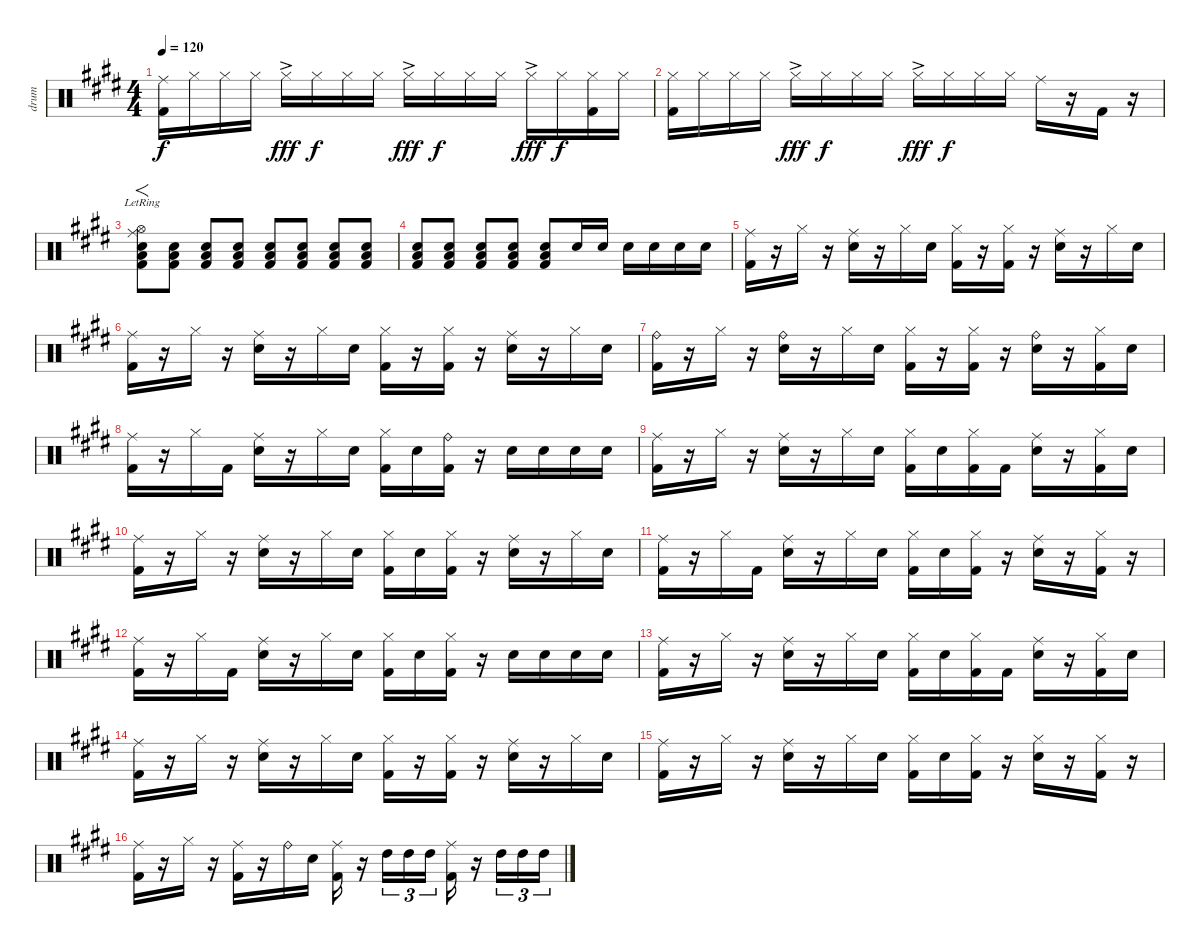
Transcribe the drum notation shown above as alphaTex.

\track ("drum" "drum") {instrument percussion}
\staff {score}
\articulation defaults
\ts (4 4)
\tempo 120
\clef neutral
\ks e
("Kick (hit) 2" "Ride (middle)").16{dy f} "Hi-Hat (closed)".16 "Hi-Hat (closed)".16 "Hi-Hat (closed)".16 "Hi-Hat (closed)"{ac}.16{dy fff} "Hi-Hat (closed)".16{dy f} "Hi-Hat (closed)".16 "Hi-Hat (closed)".16 "Hi-Hat (closed)"{ac}.16{dy fff} "Hi-Hat (closed)".16{dy f} "Hi-Hat (closed)".16 "Hi-Hat (closed)".16 "Hi-Hat (closed)"{ac}.16{dy fff} "Hi-Hat (closed)".16{dy f} ("Kick (hit) 2" "Hi-Hat (closed)").16 "Hi-Hat (closed)".16 |
("Kick (hit) 2" "Hi-Hat (closed)").16 "Hi-Hat (closed)".16 "Hi-Hat (closed)".16 "Hi-Hat (closed)".16 "Hi-Hat (closed)"{ac}.16{dy fff} "Hi-Hat (closed)".16{dy f} "Hi-Hat (closed)".16 "Hi-Hat (closed)".16 "Hi-Hat (closed)"{ac}.16{dy fff} "Hi-Hat (closed)".16{dy f} "Hi-Hat (closed)".16 "Hi-Hat (closed)".16 "Ride (middle)".16 r.16 "Kick (hit) 2".16 r.16 |
("Ride (middle)" "Snare (hit) 2" "Low Floor Tom (hit)" "Kick (hit) 2" "Hi-Hat (open)"{lr}).8{f} ("Snare (hit) 2" "Low Floor Tom (hit)" "Kick (hit) 2").8 ("Snare (hit) 2" "Low Floor Tom (hit)" "Kick (hit) 2").8 ("Snare (hit) 2" "Low Floor Tom (hit)" "Kick (hit) 2").8 ("Snare (hit) 2" "Low Floor Tom (hit)" "Kick (hit) 2").8 ("Snare (hit) 2" "Low Floor Tom (hit)" "Kick (hit) 2").8 ("Snare (hit) 2" "Low Floor Tom (hit)" "Kick (hit) 2").8 ("Snare (hit) 2" "Low Floor Tom (hit)" "Kick (hit) 2").8 |
("Snare (hit) 2" "Low Floor Tom (hit)" "Kick (hit) 2").8 ("Snare (hit) 2" "Low Floor Tom (hit)" "Kick (hit) 2").8 ("Snare (hit) 2" "Low Floor Tom (hit)" "Kick (hit) 2").8 ("Snare (hit) 2" "Low Floor Tom (hit)" "Kick (hit) 2").8 ("Snare (hit) 2" "Low Floor Tom (hit)" "Kick (hit) 2").8 "Snare (hit) 2".16 "Snare (hit) 2".16 "Snare (hit) 2".16 "Snare (hit) 2".16 "Snare (hit) 2".16 "Snare (hit) 2".16 |
("Kick (hit) 2" "Ride (middle)").16 r.16 "Hi-Hat (closed)".16 r.16 ("Snare (hit) 2" "Ride (middle)").16 r.16 "Hi-Hat (closed)".16 "Snare (hit) 2".16 ("Kick (hit) 2" "Hi-Hat (closed)").16 r.16 ("Kick (hit) 2" "Hi-Hat (closed)").16 r.16 ("Snare (hit) 2" "Ride (middle)").16 r.16 "Hi-Hat (closed)".16 "Snare (hit) 2".16 |
("Kick (hit) 2" "Ride (middle)").16 r.16 "Hi-Hat (closed)".16 r.16 ("Snare (hit) 2" "Ride (middle)").16 r.16 "Hi-Hat (closed)".16 "Snare (hit) 2".16 ("Kick (hit) 2" "Hi-Hat (closed)").16 r.16 ("Kick (hit) 2" "Hi-Hat (closed)").16 r.16 ("Snare (hit) 2" "Ride (middle)").16 r.16 "Hi-Hat (closed)".16 "Snare (hit) 2".16 |
("Kick (hit) 2" "Ride (bell)").16 r.16 "Hi-Hat (closed)".16 r.16 ("Snare (hit) 2" "Ride (bell)").16 r.16 "Hi-Hat (closed)".16 "Snare (hit) 2".16 ("Kick (hit) 2" "Hi-Hat (closed)").16 r.16 ("Kick (hit) 2" "Hi-Hat (closed)").16 r.16 ("Snare (hit) 2" "Ride (bell)").16 r.16 ("Kick (hit) 2" "Hi-Hat (closed)").16 "Snare (hit) 2".16 |
("Kick (hit) 2" "Ride (middle)").16 r.16 "Hi-Hat (closed)".16 "Kick (hit) 2".16 ("Snare (hit) 2" "Ride (middle)").16 r.16 "Hi-Hat (closed)".16 "Snare (hit) 2".16 ("Kick (hit) 2" "Hi-Hat (closed)").16 "Snare (hit) 2".16 ("Kick (hit) 2" "Ride (bell)").16 r.16 "Snare (hit) 2".16 "Snare (hit) 2".16 "Snare (hit) 2".16 "Snare (hit) 2".16 |
("Kick (hit) 2" "Ride (middle)").16 r.16 "Hi-Hat (closed)".16 r.16 ("Snare (hit) 2" "Ride (middle)").16 r.16 "Hi-Hat (closed)".16 "Snare (hit) 2".16 ("Kick (hit) 2" "Hi-Hat (closed)").16 "Snare (hit) 2".16 ("Kick (hit) 2" "Hi-Hat (closed)").16 "Kick (hit) 2".16 ("Snare (hit) 2" "Ride (middle)").16 r.16 ("Kick (hit) 2" "Hi-Hat (closed)").16 "Snare (hit) 2".16 |
("Kick (hit) 2" "Ride (middle)").16 r.16 "Hi-Hat (closed)".16 r.16 ("Snare (hit) 2" "Ride (middle)").16 r.16 "Hi-Hat (closed)".16 "Snare (hit) 2".16 ("Kick (hit) 2" "Hi-Hat (closed)").16 "Snare (hit) 2".16 ("Kick (hit) 2" "Hi-Hat (closed)").16 r.16 ("Snare (hit) 2" "Ride (middle)").16 r.16 "Hi-Hat (closed)".16 "Snare (hit) 2".16 |
("Kick (hit) 2" "Ride (middle)").16 r.16 "Hi-Hat (closed)".16 "Kick (hit) 2".16 ("Snare (hit) 2" "Ride (middle)").16 r.16 "Hi-Hat (closed)".16 "Snare (hit) 2".16 ("Kick (hit) 2" "Hi-Hat (closed)").16 "Snare (hit) 2".16 ("Kick (hit) 2" "Hi-Hat (closed)").16 r.16 ("Snare (hit) 2" "Ride (middle)").16 r.16 ("Kick (hit) 2" "Hi-Hat (closed)").16 r.16 |
("Kick (hit) 2" "Ride (middle)").16 r.16 "Hi-Hat (closed)".16 "Kick (hit) 2".16 ("Snare (hit) 2" "Ride (middle)").16 r.16 "Hi-Hat (closed)".16 "Snare (hit) 2".16 ("Kick (hit) 2" "Hi-Hat (closed)").16 "Snare (hit) 2".16 ("Kick (hit) 2" "Hi-Hat (closed)").16 r.16 "Snare (hit) 2".16 "Snare (hit) 2".16 "Snare (hit) 2".16 "Snare (hit) 2".16 |
("Kick (hit) 2" "Ride (middle)").16 r.16 "Hi-Hat (closed)".16 r.16 ("Snare (hit) 2" "Ride (middle)").16 r.16 "Hi-Hat (closed)".16 "Snare (hit) 2".16 ("Kick (hit) 2" "Hi-Hat (closed)").16 "Snare (hit) 2".16 ("Kick (hit) 2" "Hi-Hat (closed)").16 "Kick (hit) 2".16 ("Snare (hit) 2" "Ride (middle)").16 r.16 ("Kick (hit) 2" "Hi-Hat (closed)").16 "Snare (hit) 2".16 |
("Kick (hit) 2" "Ride (middle)").16 r.16 "Hi-Hat (closed)".16 r.16 ("Snare (hit) 2" "Ride (middle)").16 r.16 "Hi-Hat (closed)".16 "Snare (hit) 2".16 ("Kick (hit) 2" "Hi-Hat (closed)").16 r.16 ("Kick (hit) 2" "Hi-Hat (closed)").16 r.16 ("Snare (hit) 2" "Ride (middle)").16 r.16 "Hi-Hat (closed)".16 "Snare (hit) 2".16 |
("Kick (hit) 2" "Ride (middle)").16 r.16 "Hi-Hat (closed)".16 r.16 ("Snare (hit) 2" "Ride (middle)").16 r.16 "Hi-Hat (closed)".16 "Snare (hit) 2".16 ("Kick (hit) 2" "Hi-Hat (closed)").16 "Snare (hit) 2".16 ("Kick (hit) 2" "Hi-Hat (closed)").16 r.16 ("Snare (hit) 2" "Hi-Hat (closed)").16 r.16 ("Kick (hit) 2" "Hi-Hat (closed)").16 r.16 |
("Kick (hit) 2" "Ride (middle)").16 r.16 "Hi-Hat (closed)".16 r.16 ("Kick (hit) 2" "Ride (middle)").16 r.16 "Ride (bell)".16 "Snare (hit) 2".16 ("Kick (hit) 2" "Ride (middle)").16 r.16 "High Tom (hit)".16{tu (3 2)} "High Tom (hit)".16{tu (3 2)} "High Tom (hit)".16{tu (3 2)} ("Kick (hit) 2" "Ride (middle)").16 r.16 "High Tom (hit)".16{tu (3 2)} "High Tom (hit)".16{tu (3 2)} "High Tom (hit)".16{tu (3 2)}
